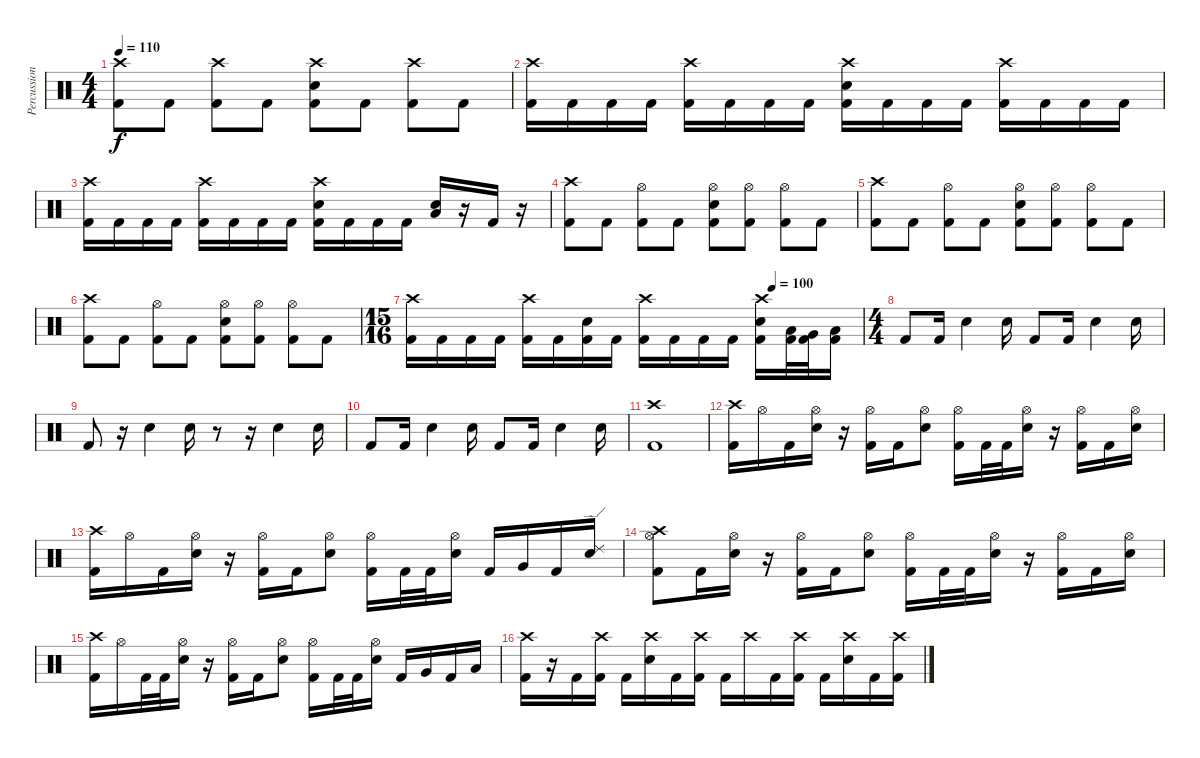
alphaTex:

\track ("Percussion" "Percussion") {instrument percussion}
\staff {score}
\articulation defaults
\ts (4 4)
\tempo 110
\clef neutral
\ks c
("Crash high (hit)" "Kick (hit) 2").8{dy f} "Kick (hit) 2".8 ("Crash high (hit)" "Kick (hit) 2").8 "Kick (hit) 2".8 ("Crash high (hit)" "Electric Snare (hit)" "Kick (hit) 2").8 "Kick (hit) 2".8 ("Crash high (hit)" "Kick (hit) 2").8 "Kick (hit) 2".8 |
("Crash high (hit)" "Kick (hit) 2").16 "Kick (hit) 2".16 "Kick (hit) 2".16 "Kick (hit) 2".16 ("Crash high (hit)" "Kick (hit) 2").16 "Kick (hit) 2".16 "Kick (hit) 2".16 "Kick (hit) 2".16 ("Crash high (hit)" "Electric Snare (hit)" "Kick (hit) 2").16 "Kick (hit) 2".16 "Kick (hit) 2".16 "Kick (hit) 2".16 ("Crash high (hit)" "Kick (hit) 2").16 "Kick (hit) 2".16 "Kick (hit) 2".16 "Kick (hit) 2".16 |
("Crash high (hit)" "Kick (hit) 2").16 "Kick (hit) 2".16 "Kick (hit) 2".16 "Kick (hit) 2".16 ("Crash high (hit)" "Kick (hit) 2").16 "Kick (hit) 2".16 "Kick (hit) 2".16 "Kick (hit) 2".16 ("Crash high (hit)" "Electric Snare (hit)" "Kick (hit) 2").16 "Kick (hit) 2".16 "Kick (hit) 2".16 "Kick (hit) 2".16 ("Low Floor Tom (hit)" "Electric Snare (hit)").16 r.16 "Kick (hit) 2".16 r.16 |
("Crash high (hit)" "Kick (hit) 2").8 "Kick (hit) 2".8 ("Hi-Hat (open)" "Kick (hit) 2").8 "Kick (hit) 2".8 ("Hi-Hat (open)" "Electric Snare (hit)" "Kick (hit) 2").8 ("Hi-Hat (open)" "Kick (hit) 2").8 ("Hi-Hat (open)" "Kick (hit) 2").8 "Kick (hit) 2".8 |
("Crash high (hit)" "Kick (hit) 2").8 "Kick (hit) 2".8 ("Hi-Hat (open)" "Kick (hit) 2").8 "Kick (hit) 2".8 ("Hi-Hat (open)" "Electric Snare (hit)" "Kick (hit) 2").8 ("Hi-Hat (open)" "Kick (hit) 2").8 ("Hi-Hat (open)" "Kick (hit) 2").8 "Kick (hit) 2".8 |
("Crash high (hit)" "Kick (hit) 2").8 "Kick (hit) 2".8 ("Hi-Hat (open)" "Kick (hit) 2").8 "Kick (hit) 2".8 ("Hi-Hat (open)" "Electric Snare (hit)" "Kick (hit) 2").8 ("Hi-Hat (open)" "Kick (hit) 2").8 ("Hi-Hat (open)" "Kick (hit) 2").8 "Kick (hit) 2".8 |
\ts (15 16)
\tempo (100 0.8)
("Crash high (hit)" "Kick (hit) 2").16 "Kick (hit) 2".16 "Kick (hit) 2".16 "Kick (hit) 2".16 ("Crash high (hit)" "Kick (hit) 2").16 "Kick (hit) 2".16 ("Electric Snare (hit)" "Kick (hit) 2").16 "Kick (hit) 2".16 ("Crash high (hit)" "Kick (hit) 2").16 "Kick (hit) 2".16 "Kick (hit) 2".16 "Kick (hit) 2".16 ("Crash high (hit)" "Electric Snare (hit)" "Kick (hit) 2").16 ("Low Tom (hit)" "Kick (hit) 2").32 ("Very Low Tom (hit)" "Kick (hit) 2").32 ("Low Floor Tom (hit)" "Kick (hit) 2").16 |
\ts (4 4)
"Kick (hit) 2".8 "Kick (hit) 2".16 "Electric Snare (hit)".4 "Electric Snare (hit)".16 "Kick (hit) 2".8 "Kick (hit) 2".16 "Electric Snare (hit)".4 "Electric Snare (hit)".16 |
"Kick (hit) 2".8 r.16 "Electric Snare (hit)".4 "Electric Snare (hit)".16 r.8 r.16 "Electric Snare (hit)".4 "Electric Snare (hit)".16 |
"Kick (hit) 2".8 "Kick (hit) 2".16 "Electric Snare (hit)".4 "Electric Snare (hit)".16 "Kick (hit) 2".8 "Kick (hit) 2".16 "Electric Snare (hit)".4 "Electric Snare (hit)".16 |
("Crash high (hit)" "Kick (hit) 2").1 |
("Crash high (hit)" "Kick (hit) 2").16 "Hi-Hat (open)".16 "Kick (hit) 2".16 ("Hi-Hat (open)" "Electric Snare (hit)").16 r.16 ("Hi-Hat (open)" "Kick (hit) 2").16 "Kick (hit) 2".16 ("Hi-Hat (open)" "Electric Snare (hit)").8 ("Hi-Hat (open)" "Kick (hit) 2").16 "Kick (hit) 2".32 "Kick (hit) 2".32 ("Hi-Hat (open)" "Electric Snare (hit)").16 r.16 ("Hi-Hat (open)" "Kick (hit) 2").16 "Kick (hit) 2".16 ("Hi-Hat (open)" "Electric Snare (hit)").16 |
("Crash high (hit)" "Kick (hit) 2").16 "Hi-Hat (open)".16 "Kick (hit) 2".16 ("Hi-Hat (open)" "Electric Snare (hit)").16 r.16 ("Hi-Hat (open)" "Kick (hit) 2").16 "Kick (hit) 2".16 ("Hi-Hat (open)" "Electric Snare (hit)").8 ("Hi-Hat (open)" "Kick (hit) 2").16 "Kick (hit) 2".32 "Kick (hit) 2".32 ("Hi-Hat (open)" "Electric Snare (hit)").16 "Kick (hit) 2".16 "Very Low Tom (hit)".16 "Kick (hit) 2".16 ("Ride (edge) 2" "Electric Snare (hit)").16 |
("Crash high (hit)" "Hi-Hat (open)" "Kick (hit) 2").8 "Kick (hit) 2".16 ("Hi-Hat (open)" "Electric Snare (hit)").16 r.16 ("Hi-Hat (open)" "Kick (hit) 2").16 "Kick (hit) 2".16 ("Hi-Hat (open)" "Electric Snare (hit)").8 ("Hi-Hat (open)" "Kick (hit) 2").16 "Kick (hit) 2".32 "Kick (hit) 2".32 ("Hi-Hat (open)" "Electric Snare (hit)").16 r.16 ("Hi-Hat (open)" "Kick (hit) 2").16 "Kick (hit) 2".16 ("Hi-Hat (open)" "Electric Snare (hit)").16 |
("Crash high (hit)" "Kick (hit) 2").16 "Hi-Hat (open)".16 "Kick (hit) 2".32 "Kick (hit) 2".32 ("Hi-Hat (open)" "Electric Snare (hit)").16 r.16 ("Hi-Hat (open)" "Kick (hit) 2").16 "Kick (hit) 2".16 ("Hi-Hat (open)" "Electric Snare (hit)").8 ("Hi-Hat (open)" "Kick (hit) 2").16 "Kick (hit) 2".32 "Kick (hit) 2".32 ("Hi-Hat (open)" "Electric Snare (hit)").16 "Kick (hit) 2".16 "Very Low Tom (hit)".16 "Kick (hit) 2".16 "Low Floor Tom (hit)".16 |
("Crash high (hit)" "Kick (hit) 2").16 r.16 "Kick (hit) 2".16 ("Crash high (hit)" "Kick (hit) 2").16 "Kick (hit) 2".16 ("Crash high (hit)" "Electric Snare (hit)").16 "Kick (hit) 2".16 ("Crash high (hit)" "Kick (hit) 2").16 "Kick (hit) 2".16 "Crash high (hit)".16 "Kick (hit) 2".16 ("Crash high (hit)" "Kick (hit) 2").16 "Kick (hit) 2".16 ("Crash high (hit)" "Electric Snare (hit)").16 "Kick (hit) 2".16 ("Crash high (hit)" "Kick (hit) 2").16
